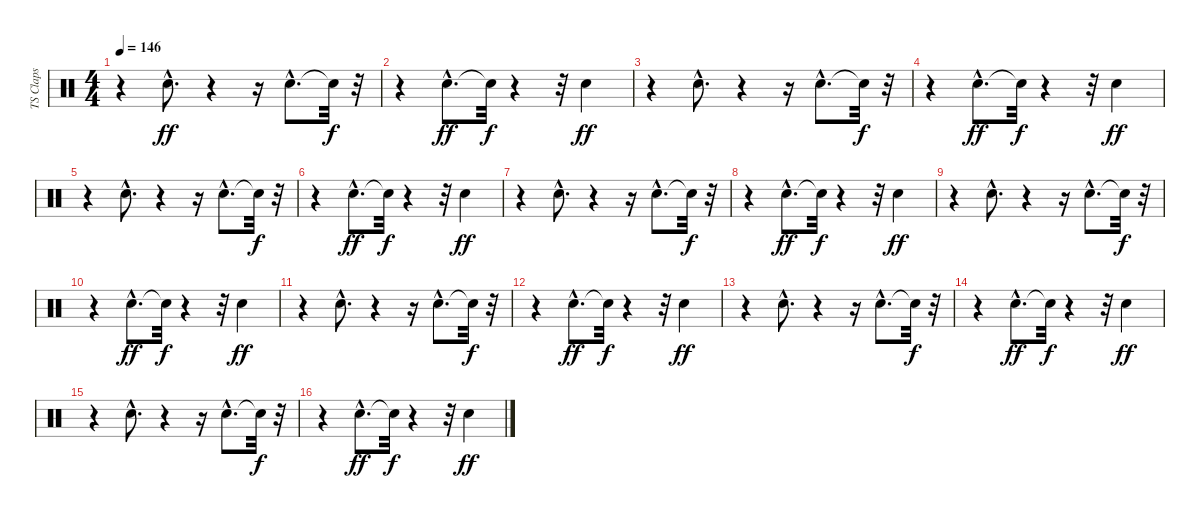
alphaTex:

\track ("TS Claps" "TS Claps") {instrument percussion}
\staff {score}
\articulation defaults
\ts (4 4)
\tempo 146
\clef neutral
\ks c
r.4{dy ff} "Hand Clap (hit)"{hac}.8{d} r.4 r.16 "Hand Clap (hit)"{hac}.8{d} "Snare (hit)"{t}.32{dy f} r.32 |
r.4 "Hand Clap (hit)"{hac}.8{d dy ff} "Snare (hit)"{t}.32{dy f} r.4 r.32 "Hand Clap (hit)".4{dy ff} |
r.4 "Hand Clap (hit)"{hac}.8{d} r.4 r.16 "Hand Clap (hit)"{hac}.8{d} "Snare (hit)"{t}.32{dy f} r.32 |
r.4 "Hand Clap (hit)"{hac}.8{d dy ff} "Snare (hit)"{t}.32{dy f} r.4 r.32 "Hand Clap (hit)".4{dy ff} |
r.4 "Hand Clap (hit)"{hac}.8{d} r.4 r.16 "Hand Clap (hit)"{hac}.8{d} "Snare (hit)"{t}.32{dy f} r.32 |
r.4 "Hand Clap (hit)"{hac}.8{d dy ff} "Snare (hit)"{t}.32{dy f} r.4 r.32 "Hand Clap (hit)".4{dy ff} |
r.4 "Hand Clap (hit)"{hac}.8{d} r.4 r.16 "Hand Clap (hit)"{hac}.8{d} "Snare (hit)"{t}.32{dy f} r.32 |
r.4 "Hand Clap (hit)"{hac}.8{d dy ff} "Snare (hit)"{t}.32{dy f} r.4 r.32 "Hand Clap (hit)".4{dy ff} |
r.4 "Hand Clap (hit)"{hac}.8{d} r.4 r.16 "Hand Clap (hit)"{hac}.8{d} "Snare (hit)"{t}.32{dy f} r.32 |
r.4 "Hand Clap (hit)"{hac}.8{d dy ff} "Snare (hit)"{t}.32{dy f} r.4 r.32 "Hand Clap (hit)".4{dy ff} |
r.4 "Hand Clap (hit)"{hac}.8{d} r.4 r.16 "Hand Clap (hit)"{hac}.8{d} "Snare (hit)"{t}.32{dy f} r.32 |
r.4 "Hand Clap (hit)"{hac}.8{d dy ff} "Snare (hit)"{t}.32{dy f} r.4 r.32 "Hand Clap (hit)".4{dy ff} |
r.4 "Hand Clap (hit)"{hac}.8{d} r.4 r.16 "Hand Clap (hit)"{hac}.8{d} "Snare (hit)"{t}.32{dy f} r.32 |
r.4 "Hand Clap (hit)"{hac}.8{d dy ff} "Snare (hit)"{t}.32{dy f} r.4 r.32 "Hand Clap (hit)".4{dy ff} |
r.4 "Hand Clap (hit)"{hac}.8{d} r.4 r.16 "Hand Clap (hit)"{hac}.8{d} "Snare (hit)"{t}.32{dy f} r.32 |
r.4 "Hand Clap (hit)"{hac}.8{d dy ff} "Snare (hit)"{t}.32{dy f} r.4 r.32 "Hand Clap (hit)".4{dy ff}
